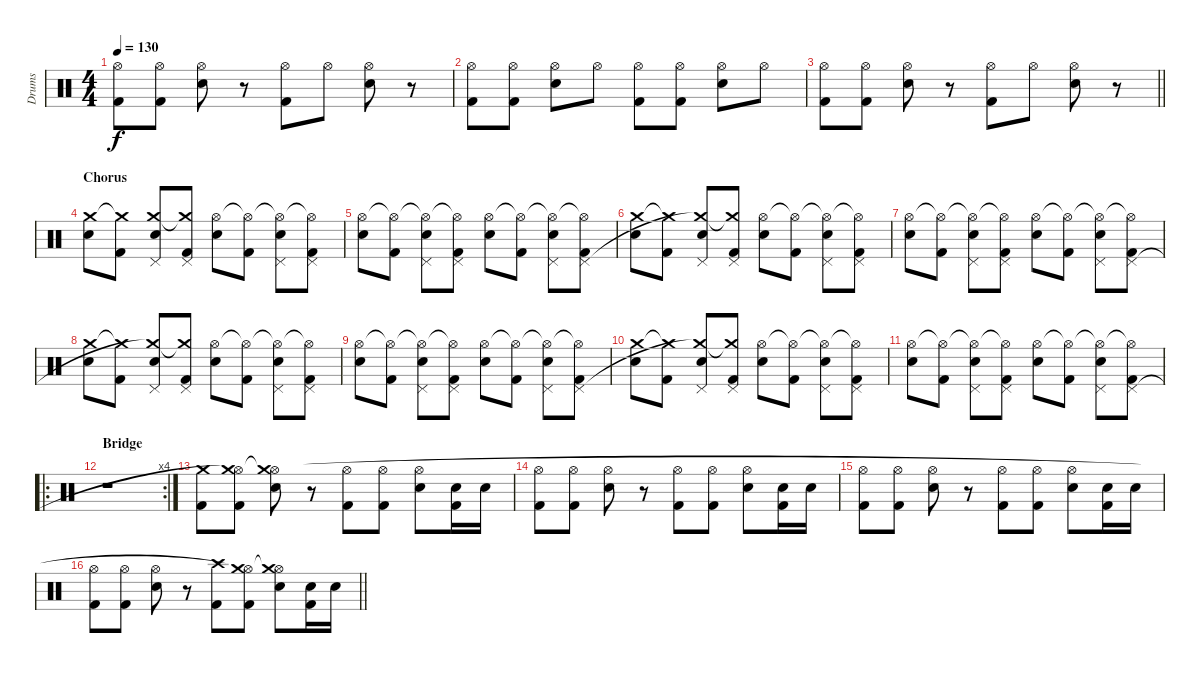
\track ("Drums" "Drums") {instrument percussion}
\staff {score}
\articulation defaults
\ts (4 4)
\tempo 130
\clef neutral
\ks c
("Kick (hit) 2" "Hi-Hat (open)").8{dy f} ("Kick (hit) 2" "Hi-Hat (open)").8 ("Snare (hit) 2" "Hi-Hat (open)").8 r.8 ("Kick (hit) 2" "Hi-Hat (open)").8 "Hi-Hat (open)".8 ("Snare (hit) 2" "Hi-Hat (open)").8 r.8 |
("Kick (hit) 2" "Hi-Hat (open)").8 ("Kick (hit) 2" "Hi-Hat (open)").8 ("Snare (hit) 2" "Hi-Hat (open)").8 "Hi-Hat (open)".8 ("Kick (hit) 2" "Hi-Hat (open)").8 ("Kick (hit) 2" "Hi-Hat (open)").8 ("Snare (hit) 2" "Hi-Hat (open)").8 "Hi-Hat (open)".8 |
\barLineRight lightlight
("Kick (hit) 2" "Hi-Hat (open)").8 ("Kick (hit) 2" "Hi-Hat (open)").8 ("Snare (hit) 2" "Hi-Hat (open)").8 r.8 ("Kick (hit) 2" "Hi-Hat (open)").8 "Hi-Hat (open)".8 ("Snare (hit) 2" "Hi-Hat (open)").8 r.8 |
\section ("" "Chorus")
("Electric Snare (hit)" "Crash medium (hit)").8 ("Kick (hit) 2" "Crash medium (hit)"{t}).8 ("Electric Snare (hit)" "Pedal Hi-Hat (hit)" "Crash medium (hit)").8 ("Kick (hit) 2" "Pedal Hi-Hat (hit)" "Crash medium (hit)"{t}).8 ("Electric Snare (hit)" "Hi-Hat (open)").8 ("Kick (hit) 2" "Hi-Hat (open)"{t}).8 ("Electric Snare (hit)" "Hi-Hat (open)"{t} "Pedal Hi-Hat (hit)").8 ("Kick (hit) 2" "Hi-Hat (open)"{t} "Pedal Hi-Hat (hit)").8 |
("Electric Snare (hit)" "Hi-Hat (open)").8 ("Kick (hit) 2" "Hi-Hat (open)"{t}).8 ("Electric Snare (hit)" "Hi-Hat (open)"{t} "Pedal Hi-Hat (hit)").8 ("Kick (hit) 2" "Hi-Hat (open)"{t} "Pedal Hi-Hat (hit)").8 ("Electric Snare (hit)" "Hi-Hat (open)").8 ("Kick (hit) 2" "Hi-Hat (open)"{t}).8 ("Electric Snare (hit)" "Hi-Hat (open)"{t} "Pedal Hi-Hat (hit)").8 ("Kick (hit) 2" "Hi-Hat (open)"{t} "Pedal Hi-Hat (hit)").8 |
("Electric Snare (hit)" "Crash medium (hit)").8 ("Kick (hit) 2" "Crash medium (hit)"{t}).8 ("Electric Snare (hit)" "Pedal Hi-Hat (hit)" "Crash medium (hit)"{t}).8 ("Kick (hit) 2" "Pedal Hi-Hat (hit)" "Crash medium (hit)"{t}).8 ("Electric Snare (hit)" "Hi-Hat (open)").8 ("Kick (hit) 2" "Hi-Hat (open)"{t}).8 ("Electric Snare (hit)" "Hi-Hat (open)"{t} "Pedal Hi-Hat (hit)").8 ("Kick (hit) 2" "Hi-Hat (open)"{t} "Pedal Hi-Hat (hit)").8 |
("Electric Snare (hit)" "Hi-Hat (open)").8 ("Kick (hit) 2" "Hi-Hat (open)"{t}).8 ("Electric Snare (hit)" "Hi-Hat (open)"{t} "Pedal Hi-Hat (hit)").8 ("Kick (hit) 2" "Hi-Hat (open)"{t} "Pedal Hi-Hat (hit)").8 ("Electric Snare (hit)" "Hi-Hat (open)").8 ("Kick (hit) 2" "Hi-Hat (open)"{t}).8 ("Electric Snare (hit)" "Hi-Hat (open)"{t} "Pedal Hi-Hat (hit)").8 ("Kick (hit) 2" "Hi-Hat (open)"{t} "Pedal Hi-Hat (hit)").8 |
("Electric Snare (hit)" "Crash medium (hit)").8 ("Kick (hit) 2" "Crash medium (hit)"{t}).8 ("Electric Snare (hit)" "Pedal Hi-Hat (hit)" "Crash medium (hit)"{t}).8 ("Kick (hit) 2" "Pedal Hi-Hat (hit)" "Crash medium (hit)"{t}).8 ("Electric Snare (hit)" "Hi-Hat (open)").8 ("Kick (hit) 2" "Hi-Hat (open)"{t}).8 ("Electric Snare (hit)" "Hi-Hat (open)"{t} "Pedal Hi-Hat (hit)").8 ("Kick (hit) 2" "Hi-Hat (open)"{t} "Pedal Hi-Hat (hit)").8 |
("Electric Snare (hit)" "Hi-Hat (open)").8 ("Kick (hit) 2" "Hi-Hat (open)"{t}).8 ("Electric Snare (hit)" "Hi-Hat (open)"{t} "Pedal Hi-Hat (hit)").8 ("Kick (hit) 2" "Hi-Hat (open)"{t} "Pedal Hi-Hat (hit)").8 ("Electric Snare (hit)" "Hi-Hat (open)").8 ("Kick (hit) 2" "Hi-Hat (open)"{t}).8 ("Electric Snare (hit)" "Hi-Hat (open)"{t} "Pedal Hi-Hat (hit)").8 ("Kick (hit) 2" "Hi-Hat (open)"{t} "Pedal Hi-Hat (hit)").8 |
("Electric Snare (hit)" "Crash medium (hit)").8 ("Kick (hit) 2" "Crash medium (hit)"{t}).8 ("Electric Snare (hit)" "Pedal Hi-Hat (hit)" "Crash medium (hit)"{t}).8 ("Kick (hit) 2" "Pedal Hi-Hat (hit)" "Crash medium (hit)"{t}).8 ("Electric Snare (hit)" "Hi-Hat (open)").8 ("Kick (hit) 2" "Hi-Hat (open)"{t}).8 ("Electric Snare (hit)" "Hi-Hat (open)"{t} "Pedal Hi-Hat (hit)").8 ("Kick (hit) 2" "Hi-Hat (open)"{t} "Pedal Hi-Hat (hit)").8 |
("Electric Snare (hit)" "Hi-Hat (open)").8 ("Kick (hit) 2" "Hi-Hat (open)"{t}).8 ("Electric Snare (hit)" "Hi-Hat (open)"{t} "Pedal Hi-Hat (hit)").8 ("Kick (hit) 2" "Hi-Hat (open)"{t} "Pedal Hi-Hat (hit)").8 ("Electric Snare (hit)" "Hi-Hat (open)").8 ("Kick (hit) 2" "Hi-Hat (open)"{t}).8 ("Electric Snare (hit)" "Hi-Hat (open)"{t} "Pedal Hi-Hat (hit)").8 ("Kick (hit) 2" "Hi-Hat (open)"{t} "Pedal Hi-Hat (hit)").8 |
\ro
\rc 4
\section ("" "Bridge")
r.1 |
("Kick (hit) 2" "Crash medium (hit)").8 ("Kick (hit) 2" "Hi-Hat (open)" "Crash medium (hit)"{t}).8 ("Snare (hit) 2" "Hi-Hat (open)" "Crash medium (hit)"{t}).8 r.8 ("Kick (hit) 2" "Hi-Hat (open)").8 ("Kick (hit) 2" "Hi-Hat (open)").8 ("Snare (hit) 2" "Hi-Hat (open)").8 ("Kick (hit) 2" "Snare (hit) 2").16 "Snare (hit) 2".16 |
("Kick (hit) 2" "Hi-Hat (open)").8 ("Kick (hit) 2" "Hi-Hat (open)").8 ("Snare (hit) 2" "Hi-Hat (open)").8 r.8 ("Kick (hit) 2" "Hi-Hat (open)").8 ("Kick (hit) 2" "Hi-Hat (open)").8 ("Snare (hit) 2" "Hi-Hat (open)").8 ("Kick (hit) 2" "Snare (hit) 2").16 "Snare (hit) 2".16 |
("Kick (hit) 2" "Hi-Hat (open)").8 ("Kick (hit) 2" "Hi-Hat (open)").8 ("Snare (hit) 2" "Hi-Hat (open)").8 r.8 ("Kick (hit) 2" "Hi-Hat (open)").8 ("Kick (hit) 2" "Hi-Hat (open)").8 ("Snare (hit) 2" "Hi-Hat (open)").8 ("Kick (hit) 2" "Snare (hit) 2").16 "Snare (hit) 2".16 |
\barLineRight lightlight
("Kick (hit) 2" "Hi-Hat (open)").8 ("Kick (hit) 2" "Hi-Hat (open)").8 ("Snare (hit) 2" "Hi-Hat (open)").8 r.8 ("Kick (hit) 2" "Crash high (hit)").8 ("Kick (hit) 2" "Hi-Hat (open)" "Crash medium (hit)"{t}).8 ("Snare (hit) 2" "Hi-Hat (open)" "Crash medium (hit)"{t}).8 ("Kick (hit) 2" "Snare (hit) 2").16 "Snare (hit) 2".16
